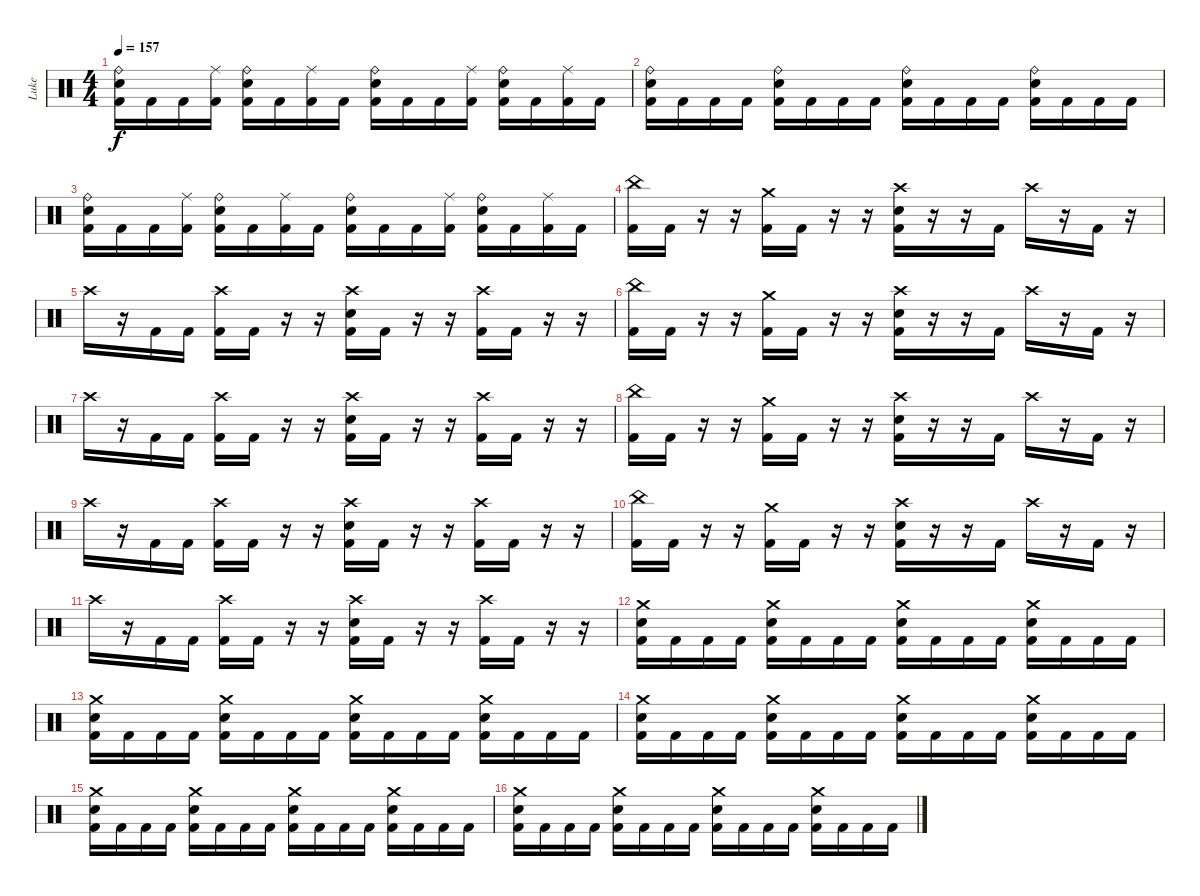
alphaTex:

\track ("Luke" "Luke") {instrument percussion}
\staff {score}
\articulation defaults
\ts (4 4)
\tempo 157
\clef neutral
\ks c
("Ride (bell)" "Electric Snare (hit)" "Kick (hit) 2").16{dy f} "Kick (hit) 2".16 "Kick (hit) 2".16 ("Ride (middle)" "Kick (hit) 2").16 ("Ride (bell)" "Electric Snare (hit)" "Kick (hit) 2").16 "Kick (hit) 2".16 ("Ride (middle)" "Kick (hit) 2").16 "Kick (hit) 2".16 ("Ride (bell)" "Electric Snare (hit)" "Kick (hit) 2").16 "Kick (hit) 2".16 "Kick (hit) 2".16 ("Ride (middle)" "Kick (hit) 2").16 ("Ride (bell)" "Electric Snare (hit)" "Kick (hit) 2").16 "Kick (hit) 2".16 ("Ride (middle)" "Kick (hit) 2").16 "Kick (hit) 2".16 |
("Ride (bell)" "Electric Snare (hit)" "Kick (hit) 2").16 "Kick (hit) 2".16 "Kick (hit) 2".16 "Kick (hit) 2".16 ("Ride (bell)" "Electric Snare (hit)" "Kick (hit) 2").16 "Kick (hit) 2".16 "Kick (hit) 2".16 "Kick (hit) 2".16 ("Ride (bell)" "Electric Snare (hit)" "Kick (hit) 2").16 "Kick (hit) 2".16 "Kick (hit) 2".16 "Kick (hit) 2".16 ("Ride (bell)" "Electric Snare (hit)" "Kick (hit) 2").16 "Kick (hit) 2".16 "Kick (hit) 2".16 "Kick (hit) 2".16 |
("Ride (bell)" "Electric Snare (hit)" "Kick (hit) 2").16 "Kick (hit) 2".16 "Kick (hit) 2".16 ("Ride (middle)" "Kick (hit) 2").16 ("Ride (bell)" "Electric Snare (hit)" "Kick (hit) 2").16 "Kick (hit) 2".16 ("Ride (middle)" "Kick (hit) 2").16 "Kick (hit) 2".16 ("Ride (bell)" "Electric Snare (hit)" "Kick (hit) 2").16 "Kick (hit) 2".16 "Kick (hit) 2".16 ("Ride (middle)" "Kick (hit) 2").16 ("Ride (bell)" "Electric Snare (hit)" "Kick (hit) 2").16 "Kick (hit) 2".16 ("Ride (middle)" "Kick (hit) 2").16 "Kick (hit) 2".16 |
("China (hit)" "Kick (hit) 2").16 "Kick (hit) 2".16 r.16 r.16 ("Crash medium (hit)" "Kick (hit) 2").16 "Kick (hit) 2".16 r.16 r.16 ("Crash high (hit)" "Electric Snare (hit)" "Kick (hit) 2").16 r.16 r.16 "Kick (hit) 2".16 "Crash high (hit)".16 r.16 "Kick (hit) 2".16 r.16 |
"Crash high (hit)".16 r.16 "Kick (hit) 2".16 "Kick (hit) 2".16 ("Crash high (hit)" "Kick (hit) 2").16 "Kick (hit) 2".16 r.16 r.16 ("Crash high (hit)" "Electric Snare (hit)" "Kick (hit) 2").16 "Kick (hit) 2".16 r.16 r.16 ("Crash high (hit)" "Kick (hit) 2").16 "Kick (hit) 2".16 r.16 r.16 |
("China (hit)" "Kick (hit) 2").16 "Kick (hit) 2".16 r.16 r.16 ("Crash medium (hit)" "Kick (hit) 2").16 "Kick (hit) 2".16 r.16 r.16 ("Crash high (hit)" "Electric Snare (hit)" "Kick (hit) 2").16 r.16 r.16 "Kick (hit) 2".16 "Crash high (hit)".16 r.16 "Kick (hit) 2".16 r.16 |
"Crash high (hit)".16 r.16 "Kick (hit) 2".16 "Kick (hit) 2".16 ("Crash high (hit)" "Kick (hit) 2").16 "Kick (hit) 2".16 r.16 r.16 ("Crash high (hit)" "Electric Snare (hit)" "Kick (hit) 2").16 "Kick (hit) 2".16 r.16 r.16 ("Crash high (hit)" "Kick (hit) 2").16 "Kick (hit) 2".16 r.16 r.16 |
("China (hit)" "Kick (hit) 2").16 "Kick (hit) 2".16 r.16 r.16 ("Crash medium (hit)" "Kick (hit) 2").16 "Kick (hit) 2".16 r.16 r.16 ("Crash high (hit)" "Electric Snare (hit)" "Kick (hit) 2").16 r.16 r.16 "Kick (hit) 2".16 "Crash high (hit)".16 r.16 "Kick (hit) 2".16 r.16 |
"Crash high (hit)".16 r.16 "Kick (hit) 2".16 "Kick (hit) 2".16 ("Crash high (hit)" "Kick (hit) 2").16 "Kick (hit) 2".16 r.16 r.16 ("Crash high (hit)" "Electric Snare (hit)" "Kick (hit) 2").16 "Kick (hit) 2".16 r.16 r.16 ("Crash high (hit)" "Kick (hit) 2").16 "Kick (hit) 2".16 r.16 r.16 |
("China (hit)" "Kick (hit) 2").16 "Kick (hit) 2".16 r.16 r.16 ("Crash medium (hit)" "Kick (hit) 2").16 "Kick (hit) 2".16 r.16 r.16 ("Crash high (hit)" "Electric Snare (hit)" "Kick (hit) 2").16 r.16 r.16 "Kick (hit) 2".16 "Crash high (hit)".16 r.16 "Kick (hit) 2".16 r.16 |
"Crash high (hit)".16 r.16 "Kick (hit) 2".16 "Kick (hit) 2".16 ("Crash high (hit)" "Kick (hit) 2").16 "Kick (hit) 2".16 r.16 r.16 ("Crash high (hit)" "Electric Snare (hit)" "Kick (hit) 2").16 "Kick (hit) 2".16 r.16 r.16 ("Crash high (hit)" "Kick (hit) 2").16 "Kick (hit) 2".16 r.16 r.16 |
("Crash medium (hit)" "Electric Snare (hit)" "Kick (hit) 2").16 "Kick (hit) 2".16 "Kick (hit) 2".16 "Kick (hit) 2".16 ("Crash medium (hit)" "Electric Snare (hit)" "Kick (hit) 2").16 "Kick (hit) 2".16 "Kick (hit) 2".16 "Kick (hit) 2".16 ("Crash medium (hit)" "Electric Snare (hit)" "Kick (hit) 2").16 "Kick (hit) 2".16 "Kick (hit) 2".16 "Kick (hit) 2".16 ("Crash medium (hit)" "Electric Snare (hit)" "Kick (hit) 2").16 "Kick (hit) 2".16 "Kick (hit) 2".16 "Kick (hit) 2".16 |
("Crash medium (hit)" "Electric Snare (hit)" "Kick (hit) 2").16 "Kick (hit) 2".16 "Kick (hit) 2".16 "Kick (hit) 2".16 ("Crash medium (hit)" "Electric Snare (hit)" "Kick (hit) 2").16 "Kick (hit) 2".16 "Kick (hit) 2".16 "Kick (hit) 2".16 ("Crash medium (hit)" "Electric Snare (hit)" "Kick (hit) 2").16 "Kick (hit) 2".16 "Kick (hit) 2".16 "Kick (hit) 2".16 ("Crash medium (hit)" "Electric Snare (hit)" "Kick (hit) 2").16 "Kick (hit) 2".16 "Kick (hit) 2".16 "Kick (hit) 2".16 |
("Crash medium (hit)" "Electric Snare (hit)" "Kick (hit) 2").16 "Kick (hit) 2".16 "Kick (hit) 2".16 "Kick (hit) 2".16 ("Crash medium (hit)" "Electric Snare (hit)" "Kick (hit) 2").16 "Kick (hit) 2".16 "Kick (hit) 2".16 "Kick (hit) 2".16 ("Crash medium (hit)" "Electric Snare (hit)" "Kick (hit) 2").16 "Kick (hit) 2".16 "Kick (hit) 2".16 "Kick (hit) 2".16 ("Crash medium (hit)" "Electric Snare (hit)" "Kick (hit) 2").16 "Kick (hit) 2".16 "Kick (hit) 2".16 "Kick (hit) 2".16 |
("Crash medium (hit)" "Electric Snare (hit)" "Kick (hit) 2").16 "Kick (hit) 2".16 "Kick (hit) 2".16 "Kick (hit) 2".16 ("Crash medium (hit)" "Electric Snare (hit)" "Kick (hit) 2").16 "Kick (hit) 2".16 "Kick (hit) 2".16 "Kick (hit) 2".16 ("Crash medium (hit)" "Electric Snare (hit)" "Kick (hit) 2").16 "Kick (hit) 2".16 "Kick (hit) 2".16 "Kick (hit) 2".16 ("Crash medium (hit)" "Electric Snare (hit)" "Kick (hit) 2").16 "Kick (hit) 2".16 "Kick (hit) 2".16 "Kick (hit) 2".16 |
("Crash medium (hit)" "Electric Snare (hit)" "Kick (hit) 2").16 "Kick (hit) 2".16 "Kick (hit) 2".16 "Kick (hit) 2".16 ("Crash medium (hit)" "Electric Snare (hit)" "Kick (hit) 2").16 "Kick (hit) 2".16 "Kick (hit) 2".16 "Kick (hit) 2".16 ("Crash medium (hit)" "Electric Snare (hit)" "Kick (hit) 2").16 "Kick (hit) 2".16 "Kick (hit) 2".16 "Kick (hit) 2".16 ("Crash medium (hit)" "Electric Snare (hit)" "Kick (hit) 2").16 "Kick (hit) 2".16 "Kick (hit) 2".16 "Kick (hit) 2".16
